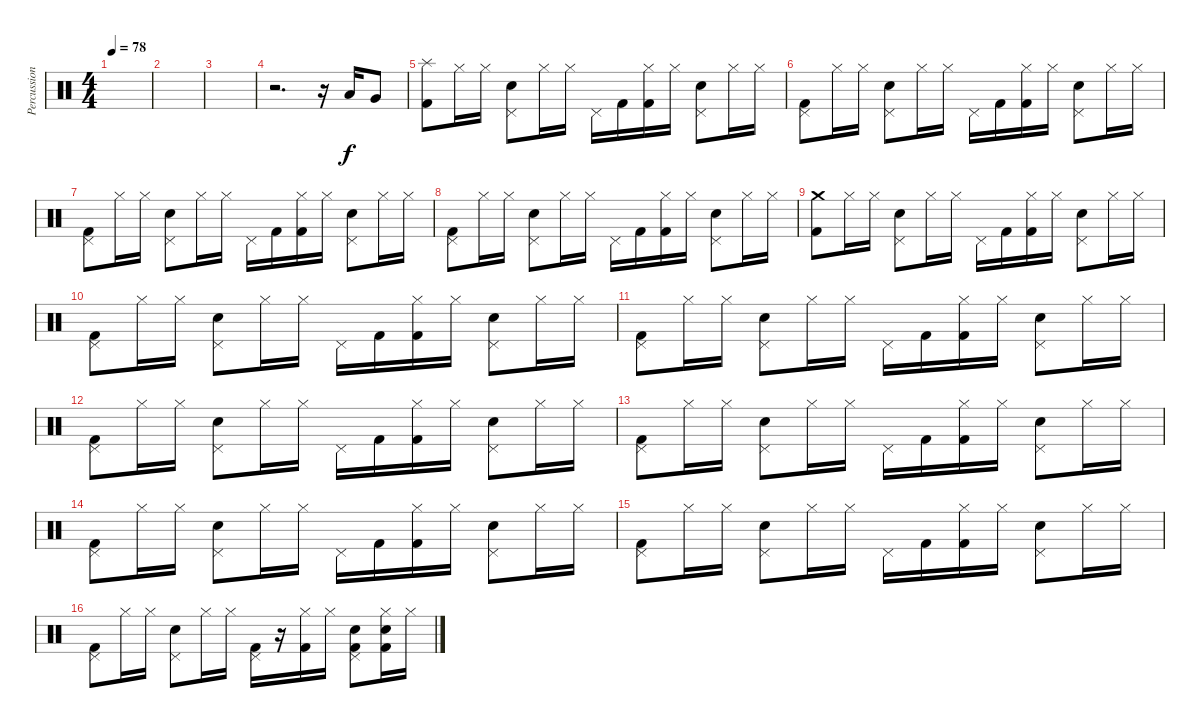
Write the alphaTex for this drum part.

\track ("Percussion" "Percussion") {instrument percussion}
\staff {score}
\articulation defaults
\ts (4 4)
\tempo 78
\clef neutral
\ks c
|
|
|
r.2{d} r.16 "Low Tom (hit)".16 "Very Low Tom (hit)".8 |
("Splash (hit)" "Kick (hit) 2").8 "Hi-Hat (closed)".16 "Hi-Hat (closed)".16 ("Pedal Hi-Hat (hit)" "Electric Snare (hit)").8 "Hi-Hat (closed)".16 "Hi-Hat (closed)".16 "Pedal Hi-Hat (hit)".16 "Kick (hit) 2".16 ("Hi-Hat (closed)" "Kick (hit) 2").16 "Hi-Hat (closed)".16 ("Pedal Hi-Hat (hit)" "Electric Snare (hit)").8 "Hi-Hat (closed)".16 "Hi-Hat (closed)".16 |
("Pedal Hi-Hat (hit)" "Kick (hit) 2").8 "Hi-Hat (closed)".16 "Hi-Hat (closed)".16 ("Pedal Hi-Hat (hit)" "Electric Snare (hit)").8 "Hi-Hat (closed)".16 "Hi-Hat (closed)".16 "Pedal Hi-Hat (hit)".16 "Kick (hit) 2".16 ("Hi-Hat (closed)" "Kick (hit) 2").16 "Hi-Hat (closed)".16 ("Pedal Hi-Hat (hit)" "Electric Snare (hit)").8 "Hi-Hat (closed)".16 "Hi-Hat (closed)".16 |
("Pedal Hi-Hat (hit)" "Kick (hit) 2").8 "Hi-Hat (closed)".16 "Hi-Hat (closed)".16 ("Pedal Hi-Hat (hit)" "Electric Snare (hit)").8 "Hi-Hat (closed)".16 "Hi-Hat (closed)".16 "Pedal Hi-Hat (hit)".16 "Kick (hit) 2".16 ("Hi-Hat (closed)" "Kick (hit) 2").16 "Hi-Hat (closed)".16 ("Pedal Hi-Hat (hit)" "Electric Snare (hit)").8 "Hi-Hat (closed)".16 "Hi-Hat (closed)".16 |
("Pedal Hi-Hat (hit)" "Kick (hit) 2").8 "Hi-Hat (closed)".16 "Hi-Hat (closed)".16 ("Pedal Hi-Hat (hit)" "Electric Snare (hit)").8 "Hi-Hat (closed)".16 "Hi-Hat (closed)".16 "Pedal Hi-Hat (hit)".16 "Kick (hit) 2".16 ("Hi-Hat (closed)" "Kick (hit) 2").16 "Hi-Hat (closed)".16 ("Pedal Hi-Hat (hit)" "Electric Snare (hit)").8 "Hi-Hat (closed)".16 "Hi-Hat (closed)".16 |
("Crash medium (hit)" "Kick (hit) 2").8 "Hi-Hat (closed)".16 "Hi-Hat (closed)".16 ("Pedal Hi-Hat (hit)" "Electric Snare (hit)").8 "Hi-Hat (closed)".16 "Hi-Hat (closed)".16 "Pedal Hi-Hat (hit)".16 "Kick (hit) 2".16 ("Hi-Hat (closed)" "Kick (hit) 2").16 "Hi-Hat (closed)".16 ("Pedal Hi-Hat (hit)" "Electric Snare (hit)").8 "Hi-Hat (closed)".16 "Hi-Hat (closed)".16 |
("Pedal Hi-Hat (hit)" "Kick (hit) 2").8 "Hi-Hat (closed)".16 "Hi-Hat (closed)".16 ("Pedal Hi-Hat (hit)" "Electric Snare (hit)").8 "Hi-Hat (closed)".16 "Hi-Hat (closed)".16 "Pedal Hi-Hat (hit)".16 "Kick (hit) 2".16 ("Hi-Hat (closed)" "Kick (hit) 2").16 "Hi-Hat (closed)".16 ("Pedal Hi-Hat (hit)" "Electric Snare (hit)").8 "Hi-Hat (closed)".16 "Hi-Hat (closed)".16 |
("Pedal Hi-Hat (hit)" "Kick (hit) 2").8 "Hi-Hat (closed)".16 "Hi-Hat (closed)".16 ("Pedal Hi-Hat (hit)" "Electric Snare (hit)").8 "Hi-Hat (closed)".16 "Hi-Hat (closed)".16 "Pedal Hi-Hat (hit)".16 "Kick (hit) 2".16 ("Hi-Hat (closed)" "Kick (hit) 2").16 "Hi-Hat (closed)".16 ("Pedal Hi-Hat (hit)" "Electric Snare (hit)").8 "Hi-Hat (closed)".16 "Hi-Hat (closed)".16 |
("Pedal Hi-Hat (hit)" "Kick (hit) 2").8 "Hi-Hat (closed)".16 "Hi-Hat (closed)".16 ("Pedal Hi-Hat (hit)" "Electric Snare (hit)").8 "Hi-Hat (closed)".16 "Hi-Hat (closed)".16 "Pedal Hi-Hat (hit)".16 "Kick (hit) 2".16 ("Hi-Hat (closed)" "Kick (hit) 2").16 "Hi-Hat (closed)".16 ("Pedal Hi-Hat (hit)" "Electric Snare (hit)").8 "Hi-Hat (closed)".16 "Hi-Hat (closed)".16 |
("Pedal Hi-Hat (hit)" "Kick (hit) 2").8 "Hi-Hat (closed)".16 "Hi-Hat (closed)".16 ("Pedal Hi-Hat (hit)" "Electric Snare (hit)").8 "Hi-Hat (closed)".16 "Hi-Hat (closed)".16 "Pedal Hi-Hat (hit)".16 "Kick (hit) 2".16 ("Hi-Hat (closed)" "Kick (hit) 2").16 "Hi-Hat (closed)".16 ("Pedal Hi-Hat (hit)" "Electric Snare (hit)").8 "Hi-Hat (closed)".16 "Hi-Hat (closed)".16 |
("Pedal Hi-Hat (hit)" "Kick (hit) 2").8 "Hi-Hat (closed)".16 "Hi-Hat (closed)".16 ("Pedal Hi-Hat (hit)" "Electric Snare (hit)").8 "Hi-Hat (closed)".16 "Hi-Hat (closed)".16 "Pedal Hi-Hat (hit)".16 "Kick (hit) 2".16 ("Hi-Hat (closed)" "Kick (hit) 2").16 "Hi-Hat (closed)".16 ("Pedal Hi-Hat (hit)" "Electric Snare (hit)").8 "Hi-Hat (closed)".16 "Hi-Hat (closed)".16 |
("Pedal Hi-Hat (hit)" "Kick (hit) 2").8 "Hi-Hat (closed)".16 "Hi-Hat (closed)".16 ("Pedal Hi-Hat (hit)" "Electric Snare (hit)").8 "Hi-Hat (closed)".16 "Hi-Hat (closed)".16 "Pedal Hi-Hat (hit)".16 "Kick (hit) 2".16 ("Hi-Hat (closed)" "Kick (hit) 2").16 "Hi-Hat (closed)".16 ("Pedal Hi-Hat (hit)" "Electric Snare (hit)").8 "Hi-Hat (closed)".16 "Hi-Hat (closed)".16 |
("Pedal Hi-Hat (hit)" "Kick (hit) 2").8 "Hi-Hat (closed)".16 "Hi-Hat (closed)".16 ("Pedal Hi-Hat (hit)" "Electric Snare (hit)").8 "Hi-Hat (closed)".16 "Hi-Hat (closed)".16 ("Pedal Hi-Hat (hit)" "Kick (hit) 2").16 r.16 ("Hi-Hat (closed)" "Kick (hit) 2").16 "Hi-Hat (closed)".16 ("Pedal Hi-Hat (hit)" "Electric Snare (hit)" "Kick (hit) 2").8 ("Hi-Hat (closed)" "Electric Snare (hit)" "Kick (hit) 2").16 "Hi-Hat (closed)".16
